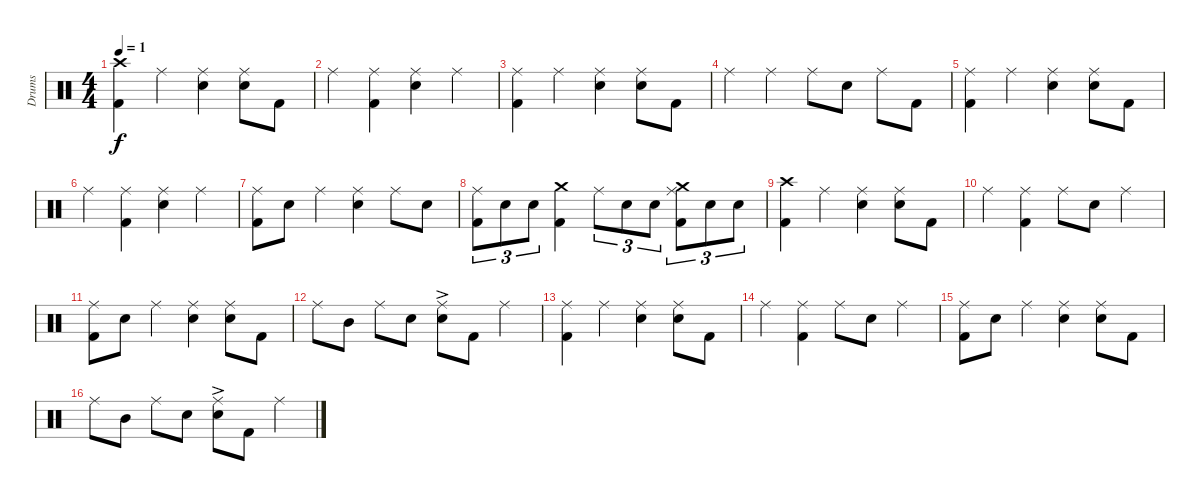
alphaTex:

\track ("Drums" "Drums") {instrument percussion}
\staff {score}
\articulation defaults
\ts (4 4)
\tempo 1
\clef neutral
\ks c
("Crash high (hit)" "Kick (hit) 2").4{dy f} "Ride (middle)".4 ("Ride (middle)" "Snare (hit) 2").4 ("Ride (middle)" "Snare (hit) 2").8 "Kick (hit) 2".8 |
"Ride (middle)".4 ("Ride (middle)" "Kick (hit) 2").4 ("Ride (middle)" "Snare (hit) 2").4 "Ride (middle)".4 |
("Ride (middle)" "Kick (hit) 2").4 "Ride (middle)".4 ("Ride (middle)" "Snare (hit) 2").4 ("Ride (middle)" "Snare (hit) 2").8 "Kick (hit) 2".8 |
"Ride (middle)".4 "Ride (middle)".4 "Ride (middle)".8 "Snare (hit) 2".8 "Ride (middle)".8 "Kick (hit) 2".8 |
("Ride (middle)" "Kick (hit) 2").4 "Ride (middle)".4 ("Ride (middle)" "Snare (hit) 2").4 ("Ride (middle)" "Snare (hit) 2").8 "Kick (hit) 2".8 |
"Ride (middle)".4 ("Ride (middle)" "Kick (hit) 2").4 ("Ride (middle)" "Snare (hit) 2").4 "Ride (middle)".4 |
("Ride (middle)" "Kick (hit) 2").8 "Snare (hit) 2".8 "Ride (middle)".4 ("Ride (middle)" "Snare (hit) 2").4 "Ride (middle)".8 "Snare (hit) 2".8 |
("Ride (middle)" "Kick (hit) 2").8{tu (3 2)} "Snare (hit) 2".8{tu (3 2)} "Snare (hit) 2".8{tu (3 2)} ("Crash medium (hit)" "Kick (hit) 2").4 "Ride (middle)".8{tu (3 2)} "Snare (hit) 2".8{tu (3 2)} "Snare (hit) 2".8{tu (3 2)} ("Crash medium (hit)" "Kick (hit) 2" "Ride (middle)").8{tu (3 2)} "Snare (hit) 2".8{tu (3 2)} "Snare (hit) 2".8{tu (3 2)} |
("Crash high (hit)" "Kick (hit) 2").4 "Ride (middle)".4 ("Ride (middle)" "Snare (hit) 2").4 ("Ride (middle)" "Snare (hit) 2").8 "Kick (hit) 2".8 |
"Ride (middle)".4 ("Ride (middle)" "Kick (hit) 2").4 "Ride (middle)".8 "Snare (hit) 2".8 "Ride (middle)".4 |
("Ride (middle)" "Kick (hit) 2").8 "Snare (hit) 2".8 "Ride (middle)".4 ("Ride (middle)" "Snare (hit) 2").4 ("Ride (middle)" "Snare (hit) 2").8 "Kick (hit) 2".8 |
"Ride (middle)".8 "Mid Tom (hit)".8 "Ride (middle)".8 "Snare (hit) 2".8 ("Ride (middle)" "Snare (hit) 2"{ac}).8 "Kick (hit) 2".8 "Ride (middle)".4 |
("Ride (middle)" "Kick (hit) 2").4 "Ride (middle)".4 ("Ride (middle)" "Snare (hit) 2").4 ("Ride (middle)" "Snare (hit) 2").8 "Kick (hit) 2".8 |
"Ride (middle)".4 ("Ride (middle)" "Kick (hit) 2").4 "Ride (middle)".8 "Snare (hit) 2".8 "Ride (middle)".4 |
("Ride (middle)" "Kick (hit) 2").8 "Snare (hit) 2".8 "Ride (middle)".4 ("Ride (middle)" "Snare (hit) 2").4 ("Ride (middle)" "Snare (hit) 2").8 "Kick (hit) 2".8 |
"Ride (middle)".8 "Mid Tom (hit)".8 "Ride (middle)".8 "Snare (hit) 2".8 ("Ride (middle)" "Snare (hit) 2"{ac}).8 "Kick (hit) 2".8 "Ride (middle)".4
